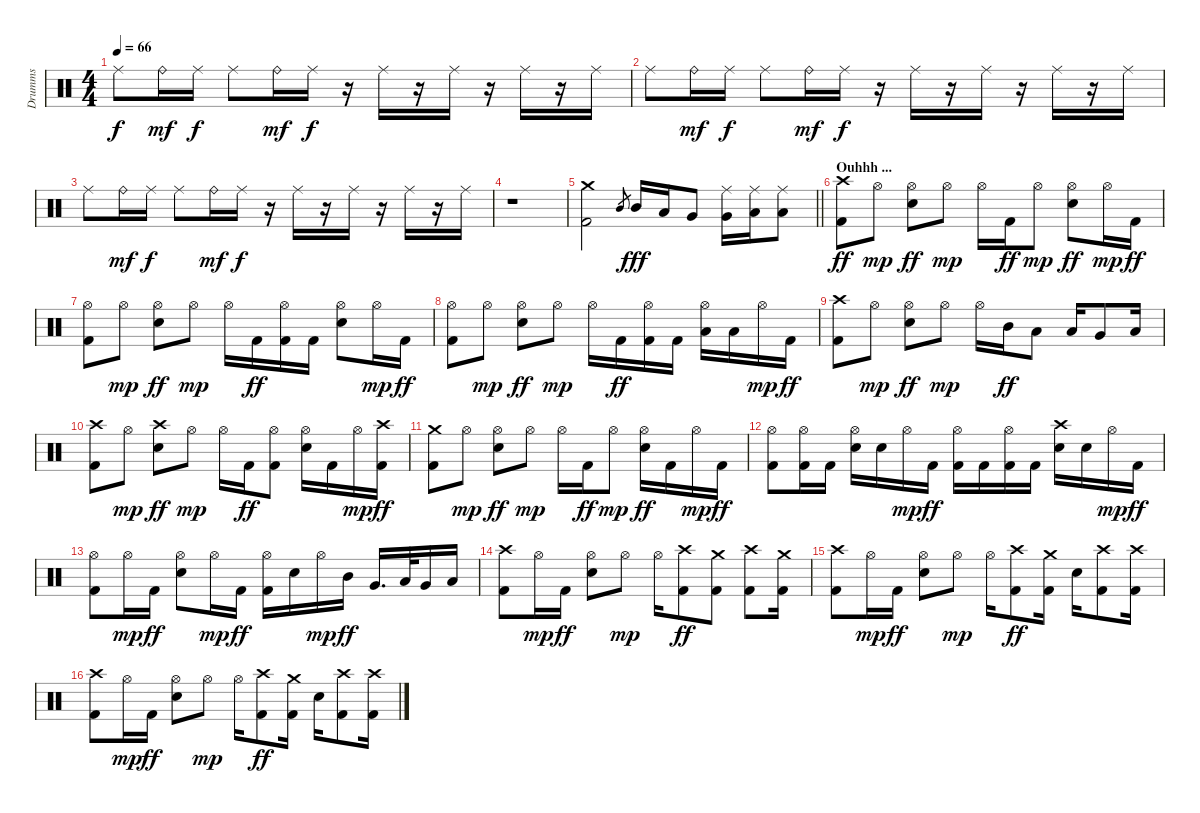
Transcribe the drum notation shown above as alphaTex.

\track ("Drumms" "Drumms") {instrument percussion}
\staff {score}
\articulation defaults
\ts (4 4)
\tempo 66
\clef neutral
\ks c "Ride (middle)".8{dy f} "Ride (bell)".16{dy mf} "Ride (middle)".16{dy f} "Ride (middle)".8 "Ride (bell)".16{dy mf} "Ride (middle)".16{dy f}
r.16 "Ride (middle)".16 r.16 "Ride (middle)".16 r.16 "Ride (middle)".16 r.16 "Ride (middle)".16 |
"Ride (middle)".8 "Ride (bell)".16{dy mf} "Ride (middle)".16{dy f} "Ride (middle)".8 "Ride (bell)".16{dy mf} "Ride (middle)".16{dy f} r.16 "Ride (middle)".16 r.16 "Ride (middle)".16 r.16 "Ride (middle)".16 r.16 "Ride (middle)".16 |
"Ride (middle)".8 "Ride (bell)".16{dy mf} "Ride (middle)".16{dy f} "Ride (middle)".8 "Ride (bell)".16{dy mf} "Ride (middle)".16{dy f} r.16 "Ride (middle)".16 r.16 "Ride (middle)".16 r.16 "Ride (middle)".16 r.16 "Ride (middle)".16 |
r.1 |
\barLineRight lightlight
("Crash medium (hit)" "Kick (hit) 2").2{volume 10} "Mid Tom (hit)".8{gr} "Mid Tom (hit)".16{dy fff} "Low Tom (hit)".16 "Very Low Tom (hit)".8 ("Ride (middle)" "Very Low Tom (hit)").16 ("Ride (middle)" "Low Tom (hit)").16 ("Ride (middle)" "Low Floor Tom (hit)").8 |
\section ("" "Ouhhh ...")
("Crash high (hit)" "Kick (hit) 2").8{dy ff} "Hi-Hat (open)".8{dy mp} ("Hi-Hat (open)" "Electric Snare (hit)").8{dy ff} "Hi-Hat (open)".8{dy mp} "Hi-Hat (open)".16 "Kick (hit) 2".16{dy ff} "Hi-Hat (open)".8{dy mp} ("Hi-Hat (open)" "Electric Snare (hit)").8{dy ff} "Hi-Hat (open)".16{dy mp} "Kick (hit) 2".16{dy ff} |
("Hi-Hat (open)" "Kick (hit) 2").8 "Hi-Hat (open)".8{dy mp} ("Hi-Hat (open)" "Electric Snare (hit)").8{dy ff} "Hi-Hat (open)".8{dy mp} "Hi-Hat (open)".16 "Kick (hit) 2".16{dy ff} ("Hi-Hat (open)" "Kick (hit) 2").16 "Kick (hit) 2".16 ("Hi-Hat (open)" "Electric Snare (hit)").8 "Hi-Hat (open)".16{dy mp} "Kick (hit) 2".16{dy ff} |
("Hi-Hat (open)" "Kick (hit) 2").8 "Hi-Hat (open)".8{dy mp} ("Hi-Hat (open)" "Electric Snare (hit)").8{dy ff} "Hi-Hat (open)".8{dy mp} "Hi-Hat (open)".16 "Kick (hit) 2".16{dy ff} ("Hi-Hat (open)" "Kick (hit) 2").16 "Kick (hit) 2".16 ("Hi-Hat (open)" "Low Tom (hit)").16 "Low Tom (hit)".16 "Hi-Hat (open)".16{dy mp} "Kick (hit) 2".16{dy ff} |
("Crash high (hit)" "Kick (hit) 2").8 "Hi-Hat (open)".8{dy mp} ("Hi-Hat (open)" "Electric Snare (hit)").8{dy ff} "Hi-Hat (open)".8{dy mp} "Hi-Hat (open)".16 "Mid Tom (hit)".16{dy ff} "Low Tom (hit)".8 "Low Tom (hit)".16 "Very Low Tom (hit)".8 "Low Floor Tom (hit)".16 |
("Crash high (hit)" "Kick (hit) 2").8 "Hi-Hat (open)".8{dy mp} ("Crash high (hit)" "Electric Snare (hit)").8{dy ff} "Hi-Hat (open)".8{dy mp} "Hi-Hat (open)".16 "Kick (hit) 2".16{dy ff} ("Hi-Hat (open)" "Kick (hit) 2").8 ("Hi-Hat (open)" "Electric Snare (hit)").16 "Kick (hit) 2".16 "Hi-Hat (open)".16{dy mp} ("Crash high (hit)" "Kick (hit) 2").16{dy ff} |
("Crash medium (hit)" "Kick (hit) 2").8 "Hi-Hat (open)".8{dy mp} ("Hi-Hat (open)" "Electric Snare (hit)").8{dy ff} "Hi-Hat (open)".8{dy mp} "Hi-Hat (open)".16 "Kick (hit) 2".16{dy ff} "Hi-Hat (open)".8{dy mp} ("Hi-Hat (open)" "Electric Snare (hit)").16{dy ff} "Kick (hit) 2".16 "Hi-Hat (open)".16{dy mp} "Kick (hit) 2".16{dy ff} |
("Hi-Hat (open)" "Kick (hit) 2").8 ("Hi-Hat (open)" "Kick (hit) 2").16 "Kick (hit) 2".16 ("Hi-Hat (open)" "Electric Snare (hit)").16 "Electric Snare (hit)".16 "Hi-Hat (open)".16{dy mp} "Kick (hit) 2".16{dy ff} ("Hi-Hat (open)" "Kick (hit) 2").16 "Kick (hit) 2".16 ("Hi-Hat (open)" "Kick (hit) 2").16 "Kick (hit) 2".16 ("Crash high (hit)" "Electric Snare (hit)").16 "Electric Snare (hit)".16 "Hi-Hat (open)".16{dy mp} "Kick (hit) 2".16{dy ff} |
("Hi-Hat (open)" "Kick (hit) 2").8 "Hi-Hat (open)".16{dy mp} "Kick (hit) 2".16{dy ff} ("Hi-Hat (open)" "Electric Snare (hit)").8 "Hi-Hat (open)".16{dy mp} "Kick (hit) 2".16{dy ff} ("Hi-Hat (open)" "Kick (hit) 2").16 "Electric Snare (hit)".16 "Hi-Hat (open)".16{dy mp} "Mid Tom (hit)".16{dy ff} "Very Low Tom (hit)".16{d} "Low Tom (hit)".32 "Very Low Tom (hit)".16 "Low Floor Tom (hit)".16 |
("Crash high (hit)" "Kick (hit) 2").8 "Hi-Hat (open)".16{dy mp} "Kick (hit) 2".16{dy ff} ("Hi-Hat (open)" "Electric Snare (hit)").8 "Hi-Hat (open)".8{dy mp} "Hi-Hat (open)".16 ("Crash high (hit)" "Kick (hit) 2").8{dy ff} ("Crash medium (hit)" "Kick (hit) 2").8 ("Crash high (hit)" "Kick (hit) 2").8 ("Crash medium (hit)" "Kick (hit) 2").16 |
("Crash high (hit)" "Kick (hit) 2").8 "Hi-Hat (open)".16{dy mp} "Kick (hit) 2".16{dy ff} ("Hi-Hat (open)" "Electric Snare (hit)").8 "Hi-Hat (open)".8{dy mp} "Hi-Hat (open)".16 ("Crash high (hit)" "Kick (hit) 2").8{dy ff} ("Crash medium (hit)" "Kick (hit) 2").16 "Electric Snare (hit)".16 ("Crash high (hit)" "Kick (hit) 2").8 ("Crash high (hit)" "Kick (hit) 2").16 |
("Crash high (hit)" "Kick (hit) 2").8 "Hi-Hat (open)".16{dy mp} "Kick (hit) 2".16{dy ff} ("Hi-Hat (open)" "Electric Snare (hit)").8 "Hi-Hat (open)".8{dy mp} "Hi-Hat (open)".16 ("Crash high (hit)" "Kick (hit) 2").8{dy ff} ("Crash medium (hit)" "Kick (hit) 2").16 "Electric Snare (hit)".16 ("Crash high (hit)" "Kick (hit) 2").8 ("Crash high (hit)" "Kick (hit) 2").16
